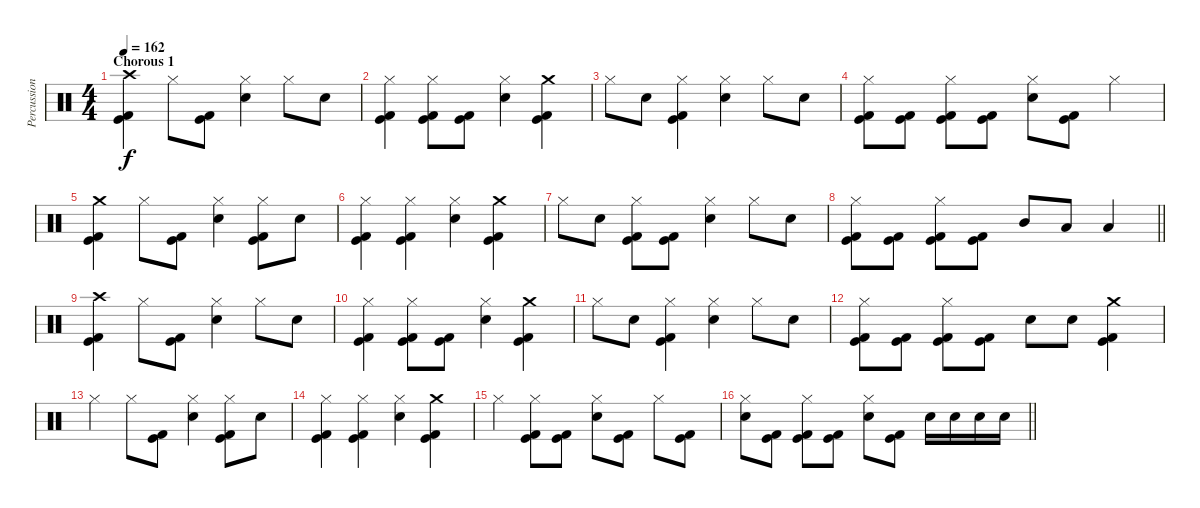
\track ("Percussion" "Percussion") {instrument percussion}
\staff {score}
\articulation defaults
\ts (4 4)
\section ("" "Chorous 1")
\tempo 162
\clef neutral
\ks c
("Crash high (hit)" "Kick (hit)" "Kick (hit) 2").4{dy f} "Hi-Hat (closed)".8 ("Kick (hit)" "Kick (hit) 2").8 ("Hi-Hat (closed)" "Electric Snare (hit)").4 "Hi-Hat (closed)".8 "Electric Snare (hit)".8 |
("Hi-Hat (closed)" "Kick (hit)" "Kick (hit) 2").4 ("Hi-Hat (closed)" "Kick (hit)" "Kick (hit) 2").8 ("Kick (hit)" "Kick (hit) 2").8 ("Hi-Hat (closed)" "Electric Snare (hit)").4 ("Crash medium (hit)" "Kick (hit)" "Kick (hit) 2").4 |
"Hi-Hat (closed)".8 "Electric Snare (hit)".8 ("Hi-Hat (closed)" "Kick (hit)" "Kick (hit) 2").4 ("Hi-Hat (closed)" "Electric Snare (hit)").4 "Hi-Hat (closed)".8 "Electric Snare (hit)".8 |
("Hi-Hat (closed)" "Kick (hit)" "Kick (hit) 2").8 ("Kick (hit)" "Kick (hit) 2").8 ("Hi-Hat (closed)" "Kick (hit)" "Kick (hit) 2").8 ("Kick (hit)" "Kick (hit) 2").8 ("Hi-Hat (closed)" "Electric Snare (hit)").8 ("Kick (hit)" "Kick (hit) 2").8 "Hi-Hat (closed)".4 |
("Crash medium (hit)" "Kick (hit)" "Kick (hit) 2").4 "Hi-Hat (closed)".8 ("Kick (hit)" "Kick (hit) 2").8 ("Hi-Hat (closed)" "Electric Snare (hit)").4 ("Hi-Hat (closed)" "Kick (hit)" "Kick (hit) 2").8 "Electric Snare (hit)".8 |
("Hi-Hat (closed)" "Kick (hit)" "Kick (hit) 2").4 ("Hi-Hat (closed)" "Kick (hit)" "Kick (hit) 2").4 ("Hi-Hat (closed)" "Electric Snare (hit)").4 ("Crash medium (hit)" "Kick (hit)" "Kick (hit) 2").4 |
"Hi-Hat (closed)".8 "Electric Snare (hit)".8 ("Hi-Hat (closed)" "Kick (hit)" "Kick (hit) 2").8 ("Kick (hit)" "Kick (hit) 2").8 ("Hi-Hat (closed)" "Electric Snare (hit)").4 "Hi-Hat (closed)".8 "Electric Snare (hit)".8 |
\barLineRight lightlight
("Hi-Hat (closed)" "Kick (hit)" "Kick (hit) 2").8 ("Kick (hit)" "Kick (hit) 2").8 ("Hi-Hat (closed)" "Kick (hit)" "Kick (hit) 2").8 ("Kick (hit)" "Kick (hit) 2").8 "Mid Tom (hit)".8 "Low Tom (hit)".8 "Low Tom (hit)".4 |
\section ("" "")
("Crash high (hit)" "Kick (hit)" "Kick (hit) 2").4 "Hi-Hat (closed)".8 ("Kick (hit)" "Kick (hit) 2").8 ("Hi-Hat (closed)" "Electric Snare (hit)").4 "Hi-Hat (closed)".8 "Electric Snare (hit)".8 |
("Hi-Hat (closed)" "Kick (hit)" "Kick (hit) 2").4 ("Hi-Hat (closed)" "Kick (hit)" "Kick (hit) 2").8 ("Kick (hit)" "Kick (hit) 2").8 ("Hi-Hat (closed)" "Electric Snare (hit)").4 ("Crash medium (hit)" "Kick (hit)" "Kick (hit) 2").4 |
"Hi-Hat (closed)".8 "Electric Snare (hit)".8 ("Hi-Hat (closed)" "Kick (hit)" "Kick (hit) 2").4 ("Hi-Hat (closed)" "Electric Snare (hit)").4 "Hi-Hat (closed)".8 "Electric Snare (hit)".8 |
("Hi-Hat (closed)" "Kick (hit)" "Kick (hit) 2").8 ("Kick (hit)" "Kick (hit) 2").8 ("Hi-Hat (closed)" "Kick (hit)" "Kick (hit) 2").8 ("Kick (hit)" "Kick (hit) 2").8 "Electric Snare (hit)".8 "Electric Snare (hit)".8 ("Crash medium (hit)" "Kick (hit)" "Kick (hit) 2").4 |
"Hi-Hat (closed)".4 "Hi-Hat (closed)".8 ("Kick (hit)" "Kick (hit) 2").8 ("Hi-Hat (closed)" "Electric Snare (hit)").4 ("Hi-Hat (closed)" "Kick (hit)" "Kick (hit) 2").8 "Electric Snare (hit)".8 |
("Hi-Hat (closed)" "Kick (hit)" "Kick (hit) 2").4 ("Hi-Hat (closed)" "Kick (hit)" "Kick (hit) 2").4 ("Hi-Hat (closed)" "Electric Snare (hit)").4 ("Crash medium (hit)" "Kick (hit)" "Kick (hit) 2").4 |
"Hi-Hat (closed)".4 ("Hi-Hat (closed)" "Kick (hit)" "Kick (hit) 2").8 ("Kick (hit)" "Kick (hit) 2").8 ("Hi-Hat (closed)" "Electric Snare (hit)").8 ("Kick (hit)" "Kick (hit) 2").8 "Hi-Hat (closed)".8 ("Kick (hit)" "Kick (hit) 2").8 |
\barLineRight lightlight
("Hi-Hat (closed)" "Electric Snare (hit)").8 ("Kick (hit)" "Kick (hit) 2").8 ("Hi-Hat (closed)" "Kick (hit)" "Kick (hit) 2").8 ("Kick (hit)" "Kick (hit) 2").8 ("Hi-Hat (closed)" "Electric Snare (hit)").8 ("Kick (hit)" "Kick (hit) 2").8 "Electric Snare (hit)".16 "Electric Snare (hit)".16 "Electric Snare (hit)".16 "Electric Snare (hit)".16
